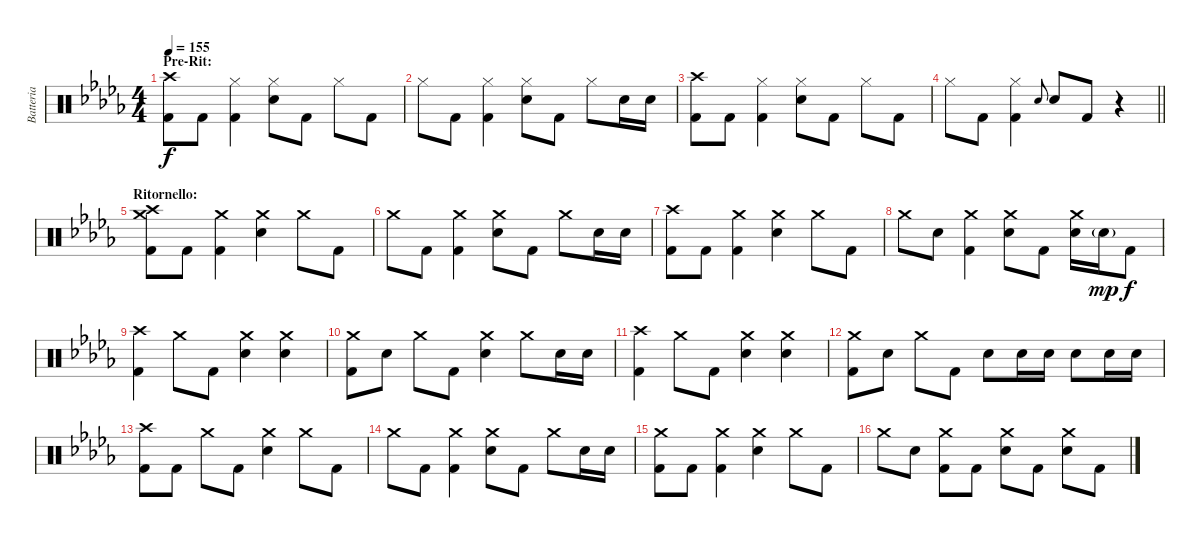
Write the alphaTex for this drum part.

\track ("Batteria" "Batteria") {instrument percussion}
\staff {score}
\articulation defaults
\ts (4 4)
\section ("" "Pre-Rit:")
\tempo 155
\clef neutral
\ks bbminor
("Kick (hit) 2" "Crash high (hit)").8{dy f} "Kick (hit) 2".8 ("Kick (hit) 2" "Hi-Hat (closed)").4 ("Snare (hit) 2" "Hi-Hat (closed)").8 "Kick (hit) 2".8 "Hi-Hat (closed)".8 "Kick (hit) 2".8 |
"Hi-Hat (closed)".8 "Kick (hit) 2".8 ("Kick (hit) 2" "Hi-Hat (closed)").4 ("Snare (hit) 2" "Hi-Hat (closed)").8 "Kick (hit) 2".8 "Hi-Hat (closed)".8 "Snare (hit) 2".16 "Snare (hit) 2".16 |
("Kick (hit) 2" "Crash high (hit)").8 "Kick (hit) 2".8 ("Kick (hit) 2" "Hi-Hat (closed)").4 ("Snare (hit) 2" "Hi-Hat (closed)").8 "Kick (hit) 2".8 "Hi-Hat (closed)".8 "Kick (hit) 2".8 |
\barLineRight lightlight "Hi-Hat (closed)".8 "Kick (hit) 2".8
("Kick (hit) 2" "Hi-Hat (closed)").4 "Snare (hit) 2".8{gr onbeat} "Snare (hit) 2".8 "Kick (hit) 2".8 r.4 |
\section ("" "Ritornello:")
("Kick (hit) 2" "Crash medium (hit)" "Crash high (hit)").8 "Kick (hit) 2".8 ("Kick (hit) 2" "Crash medium (hit)").4 ("Snare (hit) 2" "Crash medium (hit)").4 "Crash medium (hit)".8 "Kick (hit) 2".8 |
"Crash medium (hit)".8 "Kick (hit) 2".8 ("Kick (hit) 2" "Crash medium (hit)").4 ("Snare (hit) 2" "Crash medium (hit)").8 "Kick (hit) 2".8 "Crash medium (hit)".8 "Snare (hit) 2".16 "Snare (hit) 2".16 |
("Kick (hit) 2" "Crash high (hit)").8 "Kick (hit) 2".8 ("Kick (hit) 2" "Crash medium (hit)").4 ("Snare (hit) 2" "Crash medium (hit)").4 "Crash medium (hit)".8 "Kick (hit) 2".8 |
"Crash medium (hit)".8 "Snare (hit) 2".8 ("Kick (hit) 2" "Crash medium (hit)").4 ("Snare (hit) 2" "Crash medium (hit)").8 "Kick (hit) 2".8 ("Snare (hit) 2" "Crash medium (hit)").16 "Snare (hit) 2"{g}.16{dy mp} "Kick (hit) 2".8{dy f} |
("Kick (hit) 2" "Crash high (hit)").4 "Crash medium (hit)".8 "Kick (hit) 2".8 ("Snare (hit) 2" "Crash medium (hit)").4 ("Snare (hit) 2" "Crash medium (hit)").4 |
("Kick (hit) 2" "Crash medium (hit)").8 "Snare (hit) 2".8 "Crash medium (hit)".8 "Kick (hit) 2".8 ("Snare (hit) 2" "Crash medium (hit)").4 "Crash medium (hit)".8 "Snare (hit) 2".16 "Snare (hit) 2".16 |
("Kick (hit) 2" "Crash high (hit)").4 "Crash medium (hit)".8 "Kick (hit) 2".8 ("Snare (hit) 2" "Crash medium (hit)").4 ("Snare (hit) 2" "Crash medium (hit)").4 |
("Kick (hit) 2" "Crash medium (hit)").8 "Snare (hit) 2".8 "Crash medium (hit)".8 "Kick (hit) 2".8 "Snare (hit) 2".8 "Snare (hit) 2".16 "Snare (hit) 2".16 "Snare (hit) 2".8 "Snare (hit) 2".16 "Snare (hit) 2".16 |
("Kick (hit) 2" "Crash high (hit)").8 "Kick (hit) 2".8 "Crash medium (hit)".8 "Kick (hit) 2".8 ("Snare (hit) 2" "Crash medium (hit)").4 "Crash medium (hit)".8 "Kick (hit) 2".8 |
"Crash medium (hit)".8 "Kick (hit) 2".8 ("Kick (hit) 2" "Crash medium (hit)").4 ("Snare (hit) 2" "Crash medium (hit)").8 "Kick (hit) 2".8 "Crash medium (hit)".8 "Snare (hit) 2".16 "Snare (hit) 2".16 |
("Kick (hit) 2" "Crash medium (hit)").8 "Kick (hit) 2".8 ("Kick (hit) 2" "Crash medium (hit)").4 ("Snare (hit) 2" "Crash medium (hit)").4 "Crash medium (hit)".8 "Kick (hit) 2".8 |
"Crash medium (hit)".8 "Snare (hit) 2".8 ("Kick (hit) 2" "Crash medium (hit)").8 "Kick (hit) 2".8 ("Snare (hit) 2" "Crash medium (hit)").8 "Kick (hit) 2".8 ("Snare (hit) 2" "Crash medium (hit)").8 "Kick (hit) 2".8
